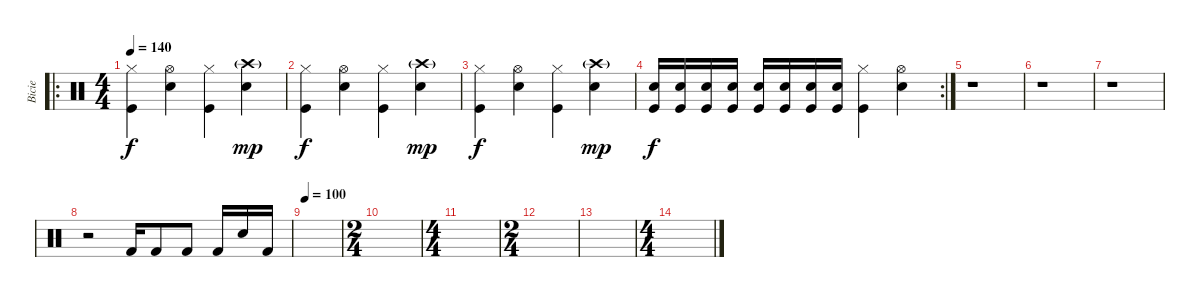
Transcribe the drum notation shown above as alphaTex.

\track ("Bicie" "Bicie") {instrument percussion}
\staff {score}
\articulation defaults
\ro
\ts (4 4)
\tempo 140
\clef neutral
\ks c
("Hi-Hat (closed)" "Kick (hit)").4{dy f} ("Hi-Hat (open)" "Electric Snare (hit)").4 ("Hi-Hat (closed)" "Kick (hit)").4 ("Crash high (hit)"{g} "Electric Snare (hit)").4{dy mp} |
("Hi-Hat (closed)" "Kick (hit)").4{dy f} ("Hi-Hat (open)" "Electric Snare (hit)").4 ("Hi-Hat (closed)" "Kick (hit)").4 ("Crash high (hit)"{g} "Electric Snare (hit)").4{dy mp} |
("Hi-Hat (closed)" "Kick (hit)").4{dy f} ("Hi-Hat (open)" "Electric Snare (hit)").4 ("Hi-Hat (closed)" "Kick (hit)").4 ("Crash high (hit)"{g} "Electric Snare (hit)").4{dy mp} |
\rc 2
("Electric Snare (hit)" "Kick (hit)").16{dy f} ("Electric Snare (hit)" "Kick (hit)").16 ("Electric Snare (hit)" "Kick (hit)").16 ("Electric Snare (hit)" "Kick (hit)").16 ("Electric Snare (hit)" "Kick (hit)").16 ("Electric Snare (hit)" "Kick (hit)").16 ("Electric Snare (hit)" "Kick (hit)").16 ("Electric Snare (hit)" "Kick (hit)").16 ("Hi-Hat (closed)" "Kick (hit)").4 ("Hi-Hat (open)" "Electric Snare (hit)").4 |
r.1 |
r.1 |
r.1 |
r.2 "Kick (hit) 2".16{volume 9} "Kick (hit) 2".8 "Kick (hit) 2".8 "Kick (hit) 2".16 "Snare (hit) 2".16 "Kick (hit) 2".16 |
\tempo 100
|
\ts (2 4)
|
\ts (4 4)
|
\ts (2 4)
|
|
\ts (4 4)
